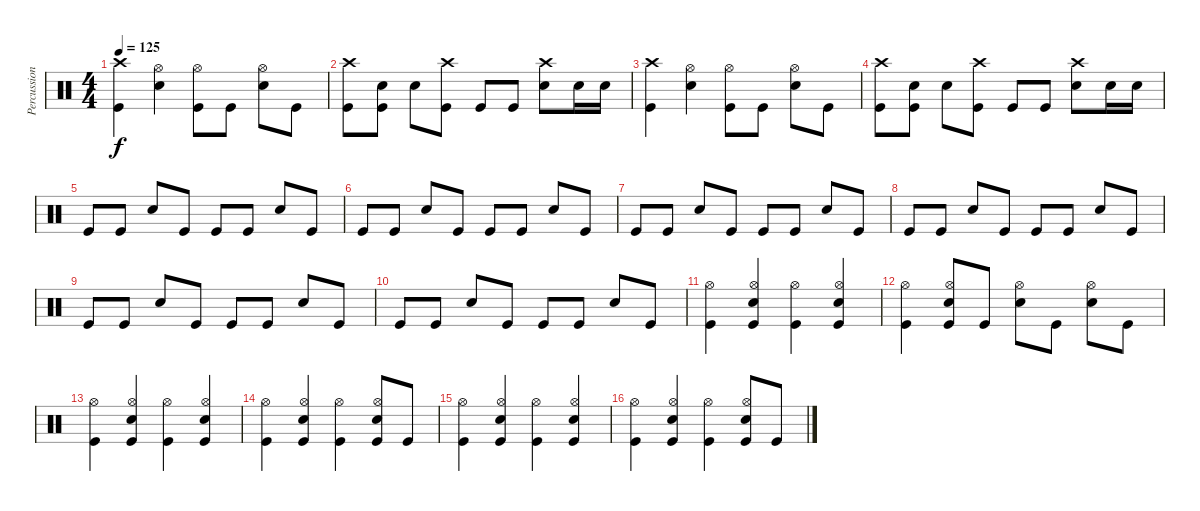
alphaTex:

\track ("Percussion" "Percussion") {instrument percussion}
\staff {score}
\articulation defaults
\ts (4 4)
\tempo 125
\clef neutral
\ks c
("Crash high (hit)" "Kick (hit)").4{dy f} ("Hi-Hat (open)" "Electric Snare (hit)").4 ("Hi-Hat (open)" "Kick (hit)").8 "Kick (hit)".8 ("Hi-Hat (open)" "Electric Snare (hit)").8 "Kick (hit)".8 |
("Crash high (hit)" "Kick (hit)").8 ("Electric Snare (hit)" "Kick (hit)").8 "Electric Snare (hit)".8 ("Crash high (hit)" "Kick (hit)").8 "Kick (hit)".8 "Kick (hit)".8 ("Crash high (hit)" "Electric Snare (hit)").8 "Electric Snare (hit)".16 "Electric Snare (hit)".16 |
("Crash high (hit)" "Kick (hit)").4 ("Hi-Hat (open)" "Electric Snare (hit)").4 ("Hi-Hat (open)" "Kick (hit)").8 "Kick (hit)".8 ("Hi-Hat (open)" "Electric Snare (hit)").8 "Kick (hit)".8 |
("Crash high (hit)" "Kick (hit)").8 ("Electric Snare (hit)" "Kick (hit)").8 "Electric Snare (hit)".8 ("Crash high (hit)" "Kick (hit)").8 "Kick (hit)".8 "Kick (hit)".8 ("Crash high (hit)" "Electric Snare (hit)").8 "Electric Snare (hit)".16 "Electric Snare (hit)".16 |
"Kick (hit)".8 "Kick (hit)".8 "Electric Snare (hit)".8 "Kick (hit)".8 "Kick (hit)".8 "Kick (hit)".8 "Electric Snare (hit)".8 "Kick (hit)".8 |
"Kick (hit)".8 "Kick (hit)".8 "Electric Snare (hit)".8 "Kick (hit)".8 "Kick (hit)".8 "Kick (hit)".8 "Electric Snare (hit)".8 "Kick (hit)".8 |
"Kick (hit)".8 "Kick (hit)".8 "Electric Snare (hit)".8 "Kick (hit)".8 "Kick (hit)".8 "Kick (hit)".8 "Electric Snare (hit)".8 "Kick (hit)".8 |
"Kick (hit)".8 "Kick (hit)".8 "Electric Snare (hit)".8 "Kick (hit)".8 "Kick (hit)".8 "Kick (hit)".8 "Electric Snare (hit)".8 "Kick (hit)".8 |
"Kick (hit)".8 "Kick (hit)".8 "Electric Snare (hit)".8 "Kick (hit)".8 "Kick (hit)".8 "Kick (hit)".8 "Electric Snare (hit)".8 "Kick (hit)".8 |
"Kick (hit)".8 "Kick (hit)".8 "Electric Snare (hit)".8 "Kick (hit)".8 "Kick (hit)".8 "Kick (hit)".8 "Electric Snare (hit)".8 "Kick (hit)".8 |
("Hi-Hat (open)" "Kick (hit)").4 ("Hi-Hat (open)" "Electric Snare (hit)" "Kick (hit)").4 ("Hi-Hat (open)" "Kick (hit)").4 ("Hi-Hat (open)" "Electric Snare (hit)" "Kick (hit)").4 |
("Hi-Hat (open)" "Kick (hit)").4 ("Hi-Hat (open)" "Electric Snare (hit)" "Kick (hit)").8 "Kick (hit)".8 ("Hi-Hat (open)" "Electric Snare (hit)").8 "Kick (hit)".8 ("Hi-Hat (open)" "Electric Snare (hit)").8 "Kick (hit)".8 |
("Hi-Hat (open)" "Kick (hit)").4 ("Hi-Hat (open)" "Electric Snare (hit)" "Kick (hit)").4 ("Hi-Hat (open)" "Kick (hit)").4 ("Hi-Hat (open)" "Electric Snare (hit)" "Kick (hit)").4 |
("Hi-Hat (open)" "Kick (hit)").4 ("Hi-Hat (open)" "Electric Snare (hit)" "Kick (hit)").4 ("Hi-Hat (open)" "Kick (hit)").4 ("Hi-Hat (open)" "Electric Snare (hit)" "Kick (hit)").8 "Kick (hit)".8 |
("Hi-Hat (open)" "Kick (hit)").4 ("Hi-Hat (open)" "Electric Snare (hit)" "Kick (hit)").4 ("Hi-Hat (open)" "Kick (hit)").4 ("Hi-Hat (open)" "Electric Snare (hit)" "Kick (hit)").4 |
("Hi-Hat (open)" "Kick (hit)").4 ("Hi-Hat (open)" "Electric Snare (hit)" "Kick (hit)").4 ("Hi-Hat (open)" "Kick (hit)").4 ("Hi-Hat (open)" "Electric Snare (hit)" "Kick (hit)").8 "Kick (hit)".8
